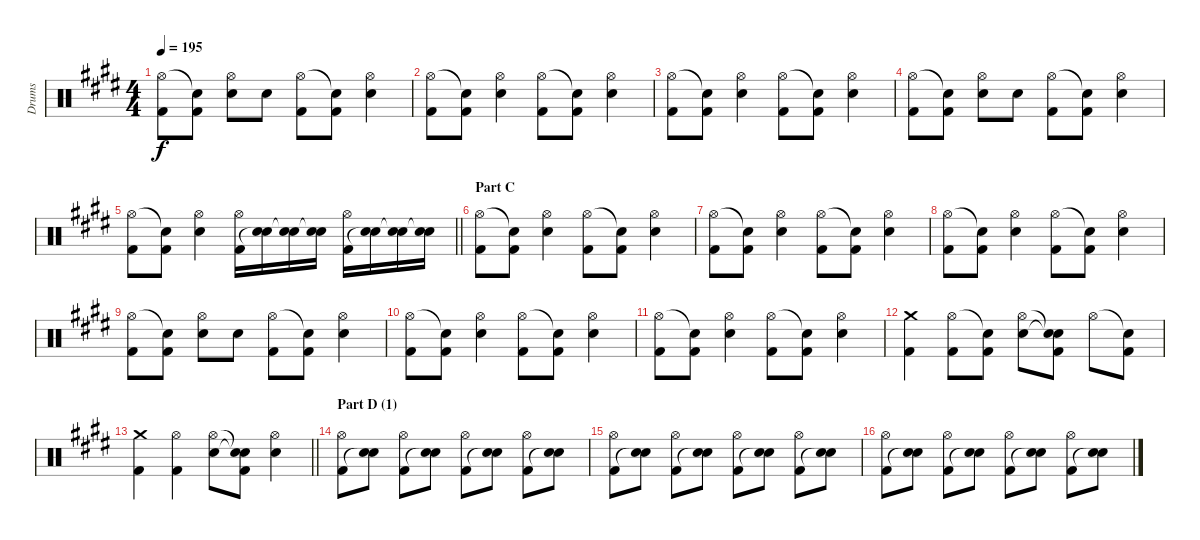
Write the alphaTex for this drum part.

\track ("Drums" "Drums") {instrument percussion}
\staff {score}
\articulation defaults
\ts (4 4)
\tempo 195
\clef neutral
\ks e
("Hi-Hat (open)" "Kick (hit) 2").8{dy f} ("Snare (hit)"{t} "Kick (hit) 2").8 ("Hi-Hat (open)" "Electric Snare (hit)").8 "Electric Snare (hit)".8 ("Hi-Hat (open)" "Kick (hit) 2").8 ("Snare (hit)"{t} "Kick (hit) 2").8 ("Hi-Hat (open)" "Electric Snare (hit)").4 |
("Hi-Hat (open)" "Kick (hit) 2").8 ("Snare (hit)"{t} "Kick (hit) 2").8 ("Hi-Hat (open)" "Electric Snare (hit)").4 ("Hi-Hat (open)" "Kick (hit) 2").8 ("Snare (hit)"{t} "Kick (hit) 2").8 ("Hi-Hat (open)" "Electric Snare (hit)").4 |
("Hi-Hat (open)" "Kick (hit) 2").8 ("Snare (hit)"{t} "Kick (hit) 2").8 ("Hi-Hat (open)" "Electric Snare (hit)").4 ("Hi-Hat (open)" "Kick (hit) 2").8 ("Snare (hit)"{t} "Kick (hit) 2").8 ("Hi-Hat (open)" "Electric Snare (hit)").4 |
("Hi-Hat (open)" "Kick (hit) 2").8 ("Snare (hit)"{t} "Kick (hit) 2").8 ("Hi-Hat (open)" "Electric Snare (hit)").8 "Electric Snare (hit)".8 ("Hi-Hat (open)" "Kick (hit) 2").8 ("Snare (hit)"{t} "Kick (hit) 2").8 ("Hi-Hat (open)" "Electric Snare (hit)").4 |
\barLineRight lightlight
("Hi-Hat (open)" "Kick (hit) 2").8 ("Snare (hit)"{t} "Kick (hit) 2").8 ("Hi-Hat (open)" "Electric Snare (hit)").4 ("Hi-Hat (open)" "Kick (hit) 2").16 ("Electric Snare (hit)" "Snare (hit)"{t}).16 ("Electric Snare (hit)" "Snare (hit)"{t}).16 ("Electric Snare (hit)" "Snare (hit)"{t}).16 ("Hi-Hat (open)" "Kick (hit) 2").16 ("Electric Snare (hit)" "Snare (hit)"{t}).16 ("Electric Snare (hit)" "Snare (hit)"{t}).16 ("Electric Snare (hit)" "Snare (hit)"{t}).16 |
\section ("" "Part C")
("Hi-Hat (open)" "Kick (hit) 2").8 ("Snare (hit)"{t} "Kick (hit) 2").8 ("Hi-Hat (open)" "Electric Snare (hit)").4 ("Hi-Hat (open)" "Kick (hit) 2").8 ("Snare (hit)"{t} "Kick (hit) 2").8 ("Hi-Hat (open)" "Electric Snare (hit)").4 |
("Hi-Hat (open)" "Kick (hit) 2").8 ("Snare (hit)"{t} "Kick (hit) 2").8 ("Hi-Hat (open)" "Electric Snare (hit)").4 ("Hi-Hat (open)" "Kick (hit) 2").8 ("Snare (hit)"{t} "Kick (hit) 2").8 ("Hi-Hat (open)" "Electric Snare (hit)").4 |
("Hi-Hat (open)" "Kick (hit) 2").8 ("Snare (hit)"{t} "Kick (hit) 2").8 ("Hi-Hat (open)" "Electric Snare (hit)").4 ("Hi-Hat (open)" "Kick (hit) 2").8 ("Snare (hit)"{t} "Kick (hit) 2").8 ("Hi-Hat (open)" "Electric Snare (hit)").4 |
("Hi-Hat (open)" "Kick (hit) 2").8 ("Snare (hit)"{t} "Kick (hit) 2").8 ("Hi-Hat (open)" "Electric Snare (hit)").8 "Electric Snare (hit)".8 ("Hi-Hat (open)" "Kick (hit) 2").8 ("Snare (hit)"{t} "Kick (hit) 2").8 ("Hi-Hat (open)" "Electric Snare (hit)").4 |
("Hi-Hat (open)" "Kick (hit) 2").8 ("Snare (hit)"{t} "Kick (hit) 2").8 ("Hi-Hat (open)" "Electric Snare (hit)").4 ("Hi-Hat (open)" "Kick (hit) 2").8 ("Snare (hit)"{t} "Kick (hit) 2").8 ("Hi-Hat (open)" "Electric Snare (hit)").4 |
("Hi-Hat (open)" "Kick (hit) 2").8 ("Snare (hit)"{t} "Kick (hit) 2").8 ("Hi-Hat (open)" "Electric Snare (hit)").4 ("Hi-Hat (open)" "Kick (hit) 2").8 ("Snare (hit)"{t} "Kick (hit) 2").8 ("Hi-Hat (open)" "Electric Snare (hit)").4 |
("Crash medium (hit)" "Kick (hit) 2").4 ("Hi-Hat (open)" "Kick (hit) 2").8 ("Snare (hit)"{t} "Kick (hit) 2").8 ("Hi-Hat (open)" "Electric Snare (hit)").8 ("Snare (hit)"{t} "Snare (hit)"{t} "Kick (hit) 2").8 "Hi-Hat (open)".8 ("Snare (hit)"{t} "Kick (hit) 2").8 |
\barLineRight lightlight
("Crash medium (hit)" "Kick (hit) 2").4 ("Hi-Hat (open)" "Kick (hit) 2").4 ("Hi-Hat (open)" "Electric Snare (hit)").8 ("Snare (hit)"{t} "Snare (hit)"{t} "Kick (hit) 2").8 ("Hi-Hat (open)" "Electric Snare (hit)").4 |
\section ("" "Part D (1)")
("Hi-Hat (open)" "Kick (hit) 2").8 ("Electric Snare (hit)" "Snare (hit)"{t}).8 ("Hi-Hat (open)" "Kick (hit) 2").8 ("Electric Snare (hit)" "Snare (hit)"{t}).8 ("Hi-Hat (open)" "Kick (hit) 2").8 ("Electric Snare (hit)" "Snare (hit)"{t}).8 ("Hi-Hat (open)" "Kick (hit) 2").8 ("Electric Snare (hit)" "Snare (hit)"{t}).8 |
("Hi-Hat (open)" "Kick (hit) 2").8 ("Electric Snare (hit)" "Snare (hit)"{t}).8 ("Hi-Hat (open)" "Kick (hit) 2").8 ("Electric Snare (hit)" "Snare (hit)"{t}).8 ("Hi-Hat (open)" "Kick (hit) 2").8 ("Electric Snare (hit)" "Snare (hit)"{t}).8 ("Hi-Hat (open)" "Kick (hit) 2").8 ("Electric Snare (hit)" "Snare (hit)"{t}).8 |
("Hi-Hat (open)" "Kick (hit) 2").8 ("Electric Snare (hit)" "Snare (hit)"{t}).8 ("Hi-Hat (open)" "Kick (hit) 2").8 ("Electric Snare (hit)" "Snare (hit)"{t}).8 ("Hi-Hat (open)" "Kick (hit) 2").8 ("Electric Snare (hit)" "Snare (hit)"{t}).8 ("Hi-Hat (open)" "Kick (hit) 2").8 ("Electric Snare (hit)" "Snare (hit)"{t}).8
